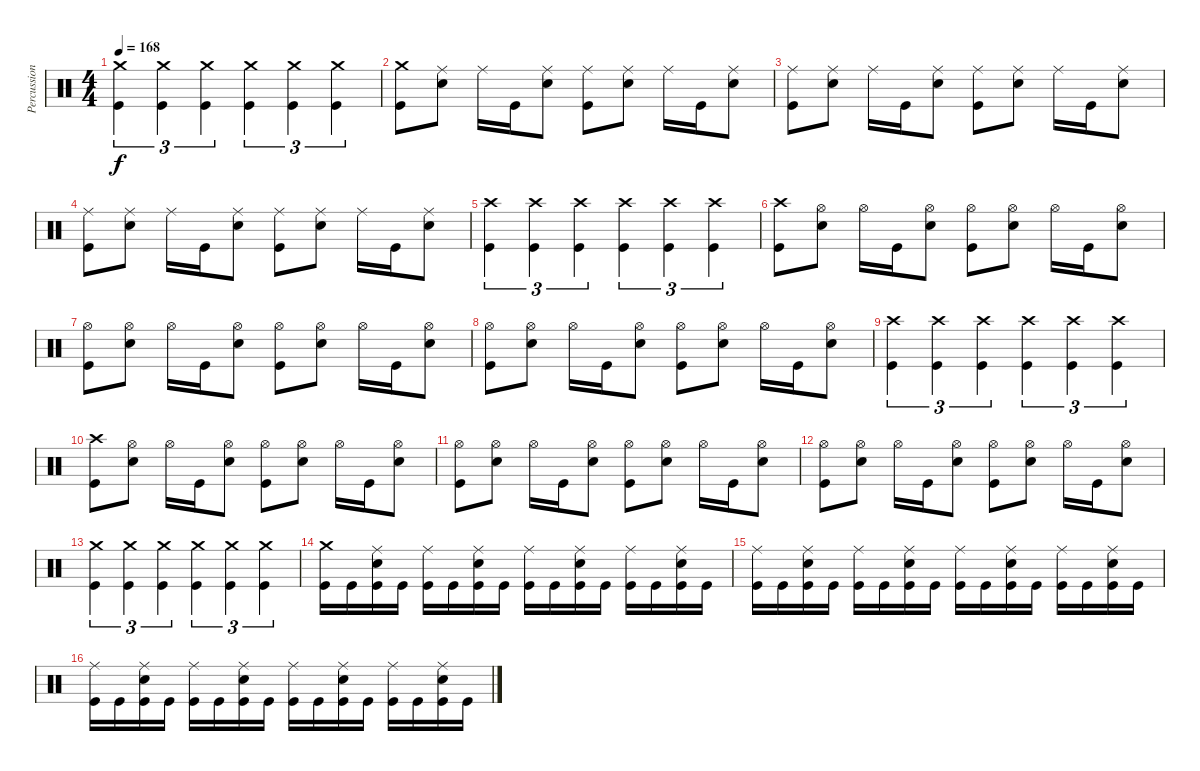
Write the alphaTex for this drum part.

\track ("Percussion" "Percussion") {instrument percussion}
\staff {score}
\articulation defaults
\ts (4 4)
\tempo 168
\clef neutral
\ks c
("Crash medium (hit)" "Kick (hit)").4{tu (3 2) dy f} ("Crash medium (hit)" "Kick (hit)").4{tu (3 2)} ("Crash medium (hit)" "Kick (hit)").4{tu (3 2)} ("Crash medium (hit)" "Kick (hit)").4{tu (3 2)} ("Crash medium (hit)" "Kick (hit)").4{tu (3 2)} ("Crash medium (hit)" "Kick (hit)").4{tu (3 2)} |
("Crash medium (hit)" "Kick (hit)").8 ("Ride (middle)" "Snare (hit) 2").8 "Ride (middle)".16 "Kick (hit)".16 ("Ride (middle)" "Snare (hit) 2").8 ("Ride (middle)" "Kick (hit)").8 ("Ride (middle)" "Snare (hit) 2").8 "Ride (middle)".16 "Kick (hit)".16 ("Ride (middle)" "Snare (hit) 2").8 |
("Ride (middle)" "Kick (hit)").8 ("Ride (middle)" "Snare (hit) 2").8 "Ride (middle)".16 "Kick (hit)".16 ("Ride (middle)" "Snare (hit) 2").8 ("Ride (middle)" "Kick (hit)").8 ("Ride (middle)" "Snare (hit) 2").8 "Ride (middle)".16 "Kick (hit)".16 ("Ride (middle)" "Snare (hit) 2").8 |
("Ride (middle)" "Kick (hit)").8 ("Ride (middle)" "Snare (hit) 2").8 "Ride (middle)".16 "Kick (hit)".16 ("Ride (middle)" "Snare (hit) 2").8 ("Ride (middle)" "Kick (hit)").8 ("Ride (middle)" "Snare (hit) 2").8 "Ride (middle)".16 "Kick (hit)".16 ("Ride (middle)" "Snare (hit) 2").8 |
("Crash high (hit)" "Kick (hit)").4{tu (3 2)} ("Crash high (hit)" "Kick (hit)").4{tu (3 2)} ("Crash high (hit)" "Kick (hit)").4{tu (3 2)} ("Crash high (hit)" "Kick (hit)").4{tu (3 2)} ("Crash high (hit)" "Kick (hit)").4{tu (3 2)} ("Crash high (hit)" "Kick (hit)").4{tu (3 2)} |
("Crash high (hit)" "Kick (hit)").8 ("Hi-Hat (open)" "Snare (hit) 2").8 "Hi-Hat (open)".16 "Kick (hit)".16 ("Hi-Hat (open)" "Snare (hit) 2").8 ("Hi-Hat (open)" "Kick (hit)").8 ("Hi-Hat (open)" "Snare (hit) 2").8 "Hi-Hat (open)".16 "Kick (hit)".16 ("Hi-Hat (open)" "Snare (hit) 2").8 |
("Hi-Hat (open)" "Kick (hit)").8 ("Hi-Hat (open)" "Snare (hit) 2").8 "Hi-Hat (open)".16 "Kick (hit)".16 ("Hi-Hat (open)" "Snare (hit) 2").8 ("Hi-Hat (open)" "Kick (hit)").8 ("Hi-Hat (open)" "Snare (hit) 2").8 "Hi-Hat (open)".16 "Kick (hit)".16 ("Hi-Hat (open)" "Snare (hit) 2").8 |
("Hi-Hat (open)" "Kick (hit)").8 ("Hi-Hat (open)" "Snare (hit) 2").8 "Hi-Hat (open)".16 "Kick (hit)".16 ("Hi-Hat (open)" "Snare (hit) 2").8 ("Hi-Hat (open)" "Kick (hit)").8 ("Hi-Hat (open)" "Snare (hit) 2").8 "Hi-Hat (open)".16 "Kick (hit)".16 ("Hi-Hat (open)" "Snare (hit) 2").8 |
("Crash high (hit)" "Kick (hit)").4{tu (3 2)} ("Crash high (hit)" "Kick (hit)").4{tu (3 2)} ("Crash high (hit)" "Kick (hit)").4{tu (3 2)} ("Crash high (hit)" "Kick (hit)").4{tu (3 2)} ("Crash high (hit)" "Kick (hit)").4{tu (3 2)} ("Crash high (hit)" "Kick (hit)").4{tu (3 2)} |
("Crash high (hit)" "Kick (hit)").8 ("Hi-Hat (open)" "Snare (hit) 2").8 "Hi-Hat (open)".16 "Kick (hit)".16 ("Hi-Hat (open)" "Snare (hit) 2").8 ("Hi-Hat (open)" "Kick (hit)").8 ("Hi-Hat (open)" "Snare (hit) 2").8 "Hi-Hat (open)".16 "Kick (hit)".16 ("Hi-Hat (open)" "Snare (hit) 2").8 |
("Hi-Hat (open)" "Kick (hit)").8 ("Hi-Hat (open)" "Snare (hit) 2").8 "Hi-Hat (open)".16 "Kick (hit)".16 ("Hi-Hat (open)" "Snare (hit) 2").8 ("Hi-Hat (open)" "Kick (hit)").8 ("Hi-Hat (open)" "Snare (hit) 2").8 "Hi-Hat (open)".16 "Kick (hit)".16 ("Hi-Hat (open)" "Snare (hit) 2").8 |
("Hi-Hat (open)" "Kick (hit)").8 ("Hi-Hat (open)" "Snare (hit) 2").8 "Hi-Hat (open)".16 "Kick (hit)".16 ("Hi-Hat (open)" "Snare (hit) 2").8 ("Hi-Hat (open)" "Kick (hit)").8 ("Hi-Hat (open)" "Snare (hit) 2").8 "Hi-Hat (open)".16 "Kick (hit)".16 ("Hi-Hat (open)" "Snare (hit) 2").8 |
("Crash medium (hit)" "Kick (hit)").4{tu (3 2)} ("Crash medium (hit)" "Kick (hit)").4{tu (3 2)} ("Crash medium (hit)" "Kick (hit)").4{tu (3 2)} ("Crash medium (hit)" "Kick (hit)").4{tu (3 2)} ("Crash medium (hit)" "Kick (hit)").4{tu (3 2)} ("Crash medium (hit)" "Kick (hit)").4{tu (3 2)} |
("Crash medium (hit)" "Kick (hit)").16 "Kick (hit)".16 ("Ride (middle)" "Snare (hit) 2" "Kick (hit)").16 "Kick (hit)".16 ("Ride (middle)" "Kick (hit)").16 "Kick (hit)".16 ("Ride (middle)" "Snare (hit) 2" "Kick (hit)").16 "Kick (hit)".16 ("Ride (middle)" "Kick (hit)").16 "Kick (hit)".16 ("Ride (middle)" "Snare (hit) 2" "Kick (hit)").16 "Kick (hit)".16 ("Ride (middle)" "Kick (hit)").16 "Kick (hit)".16 ("Ride (middle)" "Snare (hit) 2" "Kick (hit)").16 "Kick (hit)".16 |
("Ride (middle)" "Kick (hit)").16 "Kick (hit)".16 ("Ride (middle)" "Snare (hit) 2" "Kick (hit)").16 "Kick (hit)".16 ("Ride (middle)" "Kick (hit)").16 "Kick (hit)".16 ("Ride (middle)" "Snare (hit) 2" "Kick (hit)").16 "Kick (hit)".16 ("Ride (middle)" "Kick (hit)").16 "Kick (hit)".16 ("Ride (middle)" "Snare (hit) 2" "Kick (hit)").16 "Kick (hit)".16 ("Ride (middle)" "Kick (hit)").16 "Kick (hit)".16 ("Ride (middle)" "Snare (hit) 2" "Kick (hit)").16 "Kick (hit)".16 |
("Ride (middle)" "Kick (hit)").16 "Kick (hit)".16 ("Ride (middle)" "Snare (hit) 2" "Kick (hit)").16 "Kick (hit)".16 ("Ride (middle)" "Kick (hit)").16 "Kick (hit)".16 ("Ride (middle)" "Snare (hit) 2" "Kick (hit)").16 "Kick (hit)".16 ("Ride (middle)" "Kick (hit)").16 "Kick (hit)".16 ("Ride (middle)" "Snare (hit) 2" "Kick (hit)").16 "Kick (hit)".16 ("Ride (middle)" "Kick (hit)").16 "Kick (hit)".16 ("Ride (middle)" "Snare (hit) 2" "Kick (hit)").16 "Kick (hit)".16
